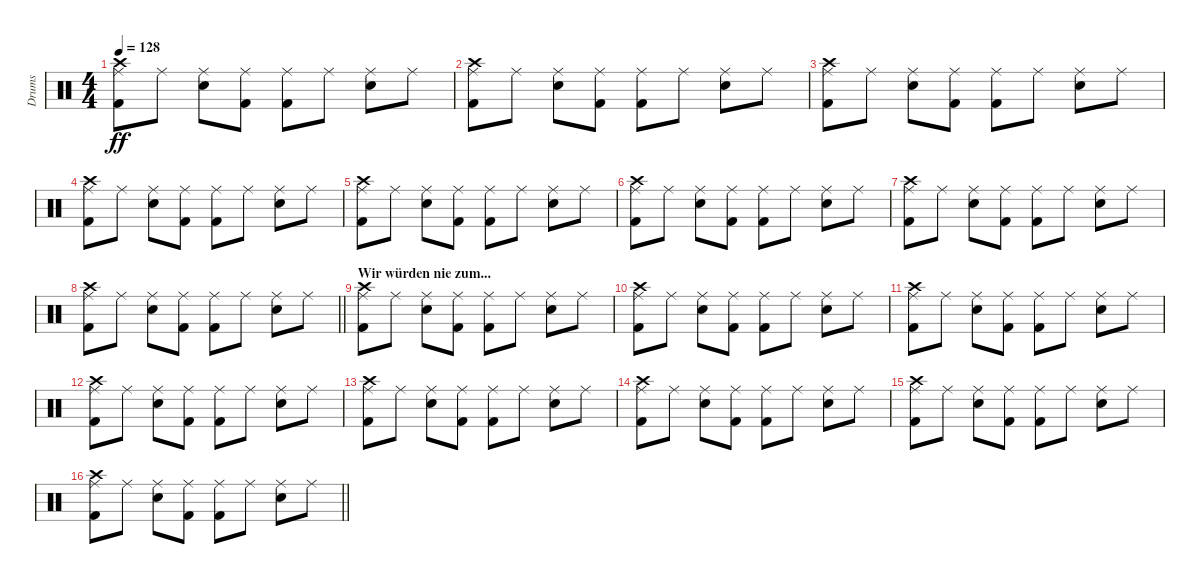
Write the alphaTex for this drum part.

\track ("Drums" "Drums") {instrument percussion}
\staff {score}
\articulation defaults
\ts (4 4)
\tempo 128
\clef neutral
\ks c
("Ride (middle)" "Kick (hit) 2" "Crash high (hit)").8{dy ff} "Ride (middle)".8 ("Ride (middle)" "Snare (hit) 2").8 ("Ride (middle)" "Kick (hit) 2").8 ("Ride (middle)" "Kick (hit) 2").8 "Ride (middle)".8 ("Ride (middle)" "Snare (hit) 2").8 "Ride (middle)".8 |
("Ride (middle)" "Kick (hit) 2" "Crash high (hit)").8 "Ride (middle)".8 ("Ride (middle)" "Snare (hit) 2").8 ("Ride (middle)" "Kick (hit) 2").8 ("Ride (middle)" "Kick (hit) 2").8 "Ride (middle)".8 ("Ride (middle)" "Snare (hit) 2").8 "Ride (middle)".8 |
("Ride (middle)" "Kick (hit) 2" "Crash high (hit)").8 "Ride (middle)".8 ("Ride (middle)" "Snare (hit) 2").8 ("Ride (middle)" "Kick (hit) 2").8 ("Ride (middle)" "Kick (hit) 2").8 "Ride (middle)".8 ("Ride (middle)" "Snare (hit) 2").8 "Ride (middle)".8 |
("Ride (middle)" "Kick (hit) 2" "Crash high (hit)").8 "Ride (middle)".8 ("Ride (middle)" "Snare (hit) 2").8 ("Ride (middle)" "Kick (hit) 2").8 ("Ride (middle)" "Kick (hit) 2").8 "Ride (middle)".8 ("Ride (middle)" "Snare (hit) 2").8 "Ride (middle)".8 |
("Ride (middle)" "Kick (hit) 2" "Crash high (hit)").8 "Ride (middle)".8 ("Ride (middle)" "Snare (hit) 2").8 ("Ride (middle)" "Kick (hit) 2").8 ("Ride (middle)" "Kick (hit) 2").8 "Ride (middle)".8 ("Ride (middle)" "Snare (hit) 2").8 "Ride (middle)".8 |
("Ride (middle)" "Kick (hit) 2" "Crash high (hit)").8 "Ride (middle)".8 ("Ride (middle)" "Snare (hit) 2").8 ("Ride (middle)" "Kick (hit) 2").8 ("Ride (middle)" "Kick (hit) 2").8 "Ride (middle)".8 ("Ride (middle)" "Snare (hit) 2").8 "Ride (middle)".8 |
("Ride (middle)" "Kick (hit) 2" "Crash high (hit)").8 "Ride (middle)".8 ("Ride (middle)" "Snare (hit) 2").8 ("Ride (middle)" "Kick (hit) 2").8 ("Ride (middle)" "Kick (hit) 2").8 "Ride (middle)".8 ("Ride (middle)" "Snare (hit) 2").8 "Ride (middle)".8 |
\barLineRight lightlight
("Ride (middle)" "Kick (hit) 2" "Crash high (hit)").8 "Ride (middle)".8 ("Ride (middle)" "Snare (hit) 2").8 ("Ride (middle)" "Kick (hit) 2").8 ("Ride (middle)" "Kick (hit) 2").8 "Ride (middle)".8 ("Ride (middle)" "Snare (hit) 2").8 "Ride (middle)".8 |
\section ("" "Wir würden nie zum...")
("Ride (middle)" "Kick (hit) 2" "Crash high (hit)").8 "Ride (middle)".8 ("Ride (middle)" "Snare (hit) 2").8 ("Ride (middle)" "Kick (hit) 2").8 ("Ride (middle)" "Kick (hit) 2").8 "Ride (middle)".8 ("Ride (middle)" "Snare (hit) 2").8 "Ride (middle)".8 |
("Ride (middle)" "Kick (hit) 2" "Crash high (hit)").8 "Ride (middle)".8 ("Ride (middle)" "Snare (hit) 2").8 ("Ride (middle)" "Kick (hit) 2").8 ("Ride (middle)" "Kick (hit) 2").8 "Ride (middle)".8 ("Ride (middle)" "Snare (hit) 2").8 "Ride (middle)".8 |
("Ride (middle)" "Kick (hit) 2" "Crash high (hit)").8 "Ride (middle)".8 ("Ride (middle)" "Snare (hit) 2").8 ("Ride (middle)" "Kick (hit) 2").8 ("Ride (middle)" "Kick (hit) 2").8 "Ride (middle)".8 ("Ride (middle)" "Snare (hit) 2").8 "Ride (middle)".8 |
("Ride (middle)" "Kick (hit) 2" "Crash high (hit)").8 "Ride (middle)".8 ("Ride (middle)" "Snare (hit) 2").8 ("Ride (middle)" "Kick (hit) 2").8 ("Ride (middle)" "Kick (hit) 2").8 "Ride (middle)".8 ("Ride (middle)" "Snare (hit) 2").8 "Ride (middle)".8 |
("Ride (middle)" "Kick (hit) 2" "Crash high (hit)").8 "Ride (middle)".8 ("Ride (middle)" "Snare (hit) 2").8 ("Ride (middle)" "Kick (hit) 2").8 ("Ride (middle)" "Kick (hit) 2").8 "Ride (middle)".8 ("Ride (middle)" "Snare (hit) 2").8 "Ride (middle)".8 |
("Ride (middle)" "Kick (hit) 2" "Crash high (hit)").8 "Ride (middle)".8 ("Ride (middle)" "Snare (hit) 2").8 ("Ride (middle)" "Kick (hit) 2").8 ("Ride (middle)" "Kick (hit) 2").8 "Ride (middle)".8 ("Ride (middle)" "Snare (hit) 2").8 "Ride (middle)".8 |
("Ride (middle)" "Kick (hit) 2" "Crash high (hit)").8 "Ride (middle)".8 ("Ride (middle)" "Snare (hit) 2").8 ("Ride (middle)" "Kick (hit) 2").8 ("Ride (middle)" "Kick (hit) 2").8 "Ride (middle)".8 ("Ride (middle)" "Snare (hit) 2").8 "Ride (middle)".8 |
\barLineRight lightlight
("Ride (middle)" "Kick (hit) 2" "Crash high (hit)").8 "Ride (middle)".8 ("Ride (middle)" "Snare (hit) 2").8 ("Ride (middle)" "Kick (hit) 2").8 ("Ride (middle)" "Kick (hit) 2").8 "Ride (middle)".8 ("Ride (middle)" "Snare (hit) 2").8 "Ride (middle)".8
